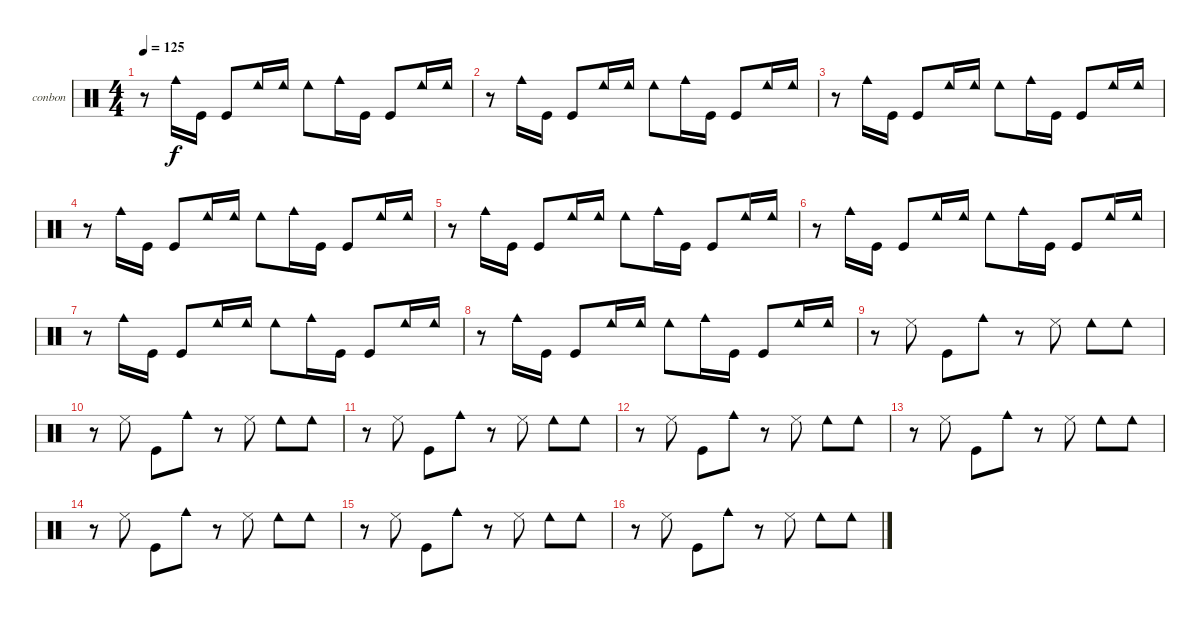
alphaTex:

\bracketExtendMode groupsimilarinstruments
\firstSystemTrackNameOrientation horizontal
\otherSystemsTrackNameOrientation horizontal
\track ("Bongos N Congas" "conbon") {instrument percussion}
\staff {score}
\articulation defaults
\ts (4 4)
\tempo 125
\clef neutral
\ks c
r.8{dy f} "Cowbell medium (hit)".16 "Kick (hit)".16 "Kick (hit)".8 "Cowbell low (hit)".16 "Cowbell low (hit)".16 "Cowbell low (hit)".8 "Cowbell medium (hit)".16 "Kick (hit)".16 "Kick (hit)".8 "Cowbell low (hit)".16 "Cowbell low (hit)".16 |
r.8 "Cowbell medium (hit)".16 "Kick (hit)".16 "Kick (hit)".8 "Cowbell low (hit)".16 "Cowbell low (hit)".16 "Cowbell low (hit)".8 "Cowbell medium (hit)".16 "Kick (hit)".16 "Kick (hit)".8 "Cowbell low (hit)".16 "Cowbell low (hit)".16 |
\scale
0.333333 r.8 "Cowbell medium (hit)".16 "Kick (hit)".16 "Kick (hit)".8 "Cowbell low (hit)".16 "Cowbell low (hit)".16 "Cowbell low (hit)".8 "Cowbell medium (hit)".16 "Kick (hit)".16 "Kick (hit)".8 "Cowbell low (hit)".16 "Cowbell low (hit)".16 |
r.8 "Cowbell medium (hit)".16 "Kick (hit)".16 "Kick (hit)".8 "Cowbell low (hit)".16 "Cowbell low (hit)".16 "Cowbell low (hit)".8 "Cowbell medium (hit)".16 "Kick (hit)".16 "Kick (hit)".8 "Cowbell low (hit)".16 "Cowbell low (hit)".16 |
r.8 "Cowbell medium (hit)".16 "Kick (hit)".16 "Kick (hit)".8 "Cowbell low (hit)".16 "Cowbell low (hit)".16 "Cowbell low (hit)".8 "Cowbell medium (hit)".16 "Kick (hit)".16 "Kick (hit)".8 "Cowbell low (hit)".16 "Cowbell low (hit)".16 |
r.8 "Cowbell medium (hit)".16 "Kick (hit)".16 "Kick (hit)".8 "Cowbell low (hit)".16 "Cowbell low (hit)".16 "Cowbell low (hit)".8 "Cowbell medium (hit)".16 "Kick (hit)".16 "Kick (hit)".8 "Cowbell low (hit)".16 "Cowbell low (hit)".16 |
r.8 "Cowbell medium (hit)".16 "Kick (hit)".16 "Kick (hit)".8 "Cowbell low (hit)".16 "Cowbell low (hit)".16 "Cowbell low (hit)".8 "Cowbell medium (hit)".16 "Kick (hit)".16 "Kick (hit)".8 "Cowbell low (hit)".16 "Cowbell low (hit)".16 |
r.8 "Cowbell medium (hit)".16 "Kick (hit)".16 "Kick (hit)".8 "Cowbell low (hit)".16 "Cowbell low (hit)".16 "Cowbell low (hit)".8 "Cowbell medium (hit)".16 "Kick (hit)".16 "Kick (hit)".8 "Cowbell low (hit)".16 "Cowbell low (hit)".16 |
r.8 "Cowbell low (tip)".8 "Kick (hit)".8 "Cowbell medium (hit)".8 r.8 "Cowbell low (tip)".8 "Cowbell low (hit)".8 "Cowbell low (hit)".8 |
r.8 "Cowbell low (tip)".8 "Kick (hit)".8 "Cowbell medium (hit)".8 r.8 "Cowbell low (tip)".8 "Cowbell low (hit)".8 "Cowbell low (hit)".8 |
r.8 "Cowbell low (tip)".8 "Kick (hit)".8 "Cowbell medium (hit)".8 r.8 "Cowbell low (tip)".8 "Cowbell low (hit)".8 "Cowbell low (hit)".8 |
r.8 "Cowbell low (tip)".8 "Kick (hit)".8 "Cowbell medium (hit)".8 r.8 "Cowbell low (tip)".8 "Cowbell low (hit)".8 "Cowbell low (hit)".8 |
r.8 "Cowbell low (tip)".8 "Kick (hit)".8 "Cowbell medium (hit)".8 r.8 "Cowbell low (tip)".8 "Cowbell low (hit)".8 "Cowbell low (hit)".8 |
r.8 "Cowbell low (tip)".8 "Kick (hit)".8 "Cowbell medium (hit)".8 r.8 "Cowbell low (tip)".8 "Cowbell low (hit)".8 "Cowbell low (hit)".8 |
r.8 "Cowbell low (tip)".8 "Kick (hit)".8 "Cowbell medium (hit)".8 r.8 "Cowbell low (tip)".8 "Cowbell low (hit)".8 "Cowbell low (hit)".8 |
r.8 "Cowbell low (tip)".8 "Kick (hit)".8 "Cowbell medium (hit)".8 r.8 "Cowbell low (tip)".8 "Cowbell low (hit)".8 "Cowbell low (hit)".8
